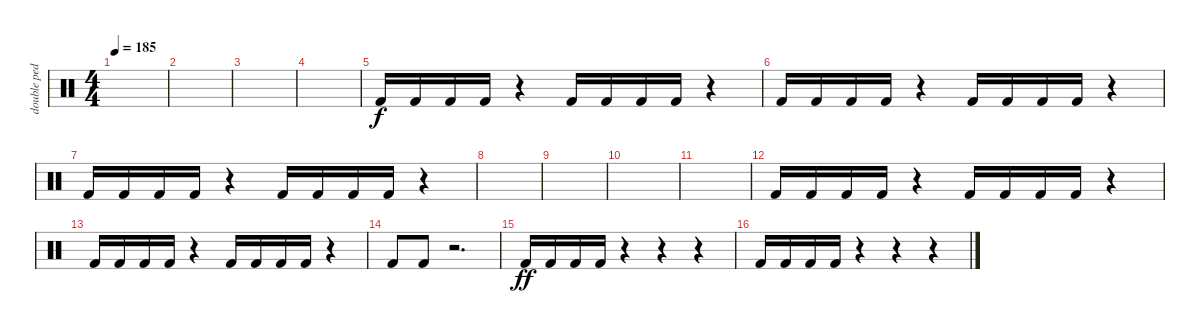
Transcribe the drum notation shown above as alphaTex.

\track ("double pedale" "double ped") {instrument percussion}
\staff {score}
\articulation defaults
\ts (4 4)
\tempo 185
\clef neutral
\ks c
|
|
|
|
"Kick (hit) 2".16 "Kick (hit) 2".16 "Kick (hit) 2".16 "Kick (hit) 2".16 r.4 "Kick (hit) 2".16 "Kick (hit) 2".16 "Kick (hit) 2".16 "Kick (hit) 2".16 r.4 |
"Kick (hit) 2".16 "Kick (hit) 2".16 "Kick (hit) 2".16 "Kick (hit) 2".16 r.4 "Kick (hit) 2".16 "Kick (hit) 2".16 "Kick (hit) 2".16 "Kick (hit) 2".16 r.4 |
"Kick (hit) 2".16 "Kick (hit) 2".16 "Kick (hit) 2".16 "Kick (hit) 2".16 r.4 "Kick (hit) 2".16 "Kick (hit) 2".16 "Kick (hit) 2".16 "Kick (hit) 2".16 r.4 |
|
|
|
|
"Kick (hit) 2".16 "Kick (hit) 2".16 "Kick (hit) 2".16 "Kick (hit) 2".16 r.4 "Kick (hit) 2".16 "Kick (hit) 2".16 "Kick (hit) 2".16 "Kick (hit) 2".16 r.4 |
"Kick (hit) 2".16 "Kick (hit) 2".16 "Kick (hit) 2".16 "Kick (hit) 2".16 r.4 "Kick (hit) 2".16 "Kick (hit) 2".16 "Kick (hit) 2".16 "Kick (hit) 2".16 r.4 |
"Kick (hit) 2".8 "Kick (hit) 2".8 r.2{d} |
"Kick (hit) 2".16{dy ff} "Kick (hit) 2".16 "Kick (hit) 2".16 "Kick (hit) 2".16 r.4 r.4 r.4 |
"Kick (hit) 2".16 "Kick (hit) 2".16 "Kick (hit) 2".16 "Kick (hit) 2".16 r.4 r.4 r.4
